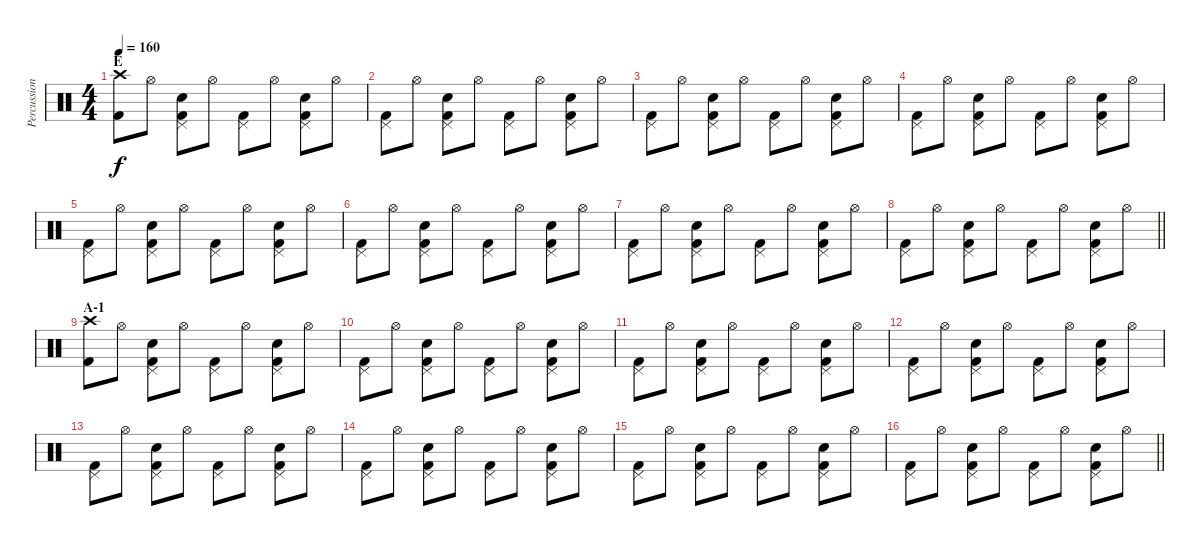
\track ("Percussion" "Percussion") {instrument percussion}
\staff {score}
\articulation defaults
\ts (4 4)
\section ("" "E")
\tempo 160
\clef neutral
\ks c
("Crash high (hit)" "Kick (hit) 2").8{dy f} "Hi-Hat (open)".8 ("Pedal Hi-Hat (hit)" "Electric Snare (hit)" "Kick (hit) 2").8 "Hi-Hat (open)".8 ("Pedal Hi-Hat (hit)" "Kick (hit) 2").8 "Hi-Hat (open)".8 ("Pedal Hi-Hat (hit)" "Electric Snare (hit)" "Kick (hit) 2").8 "Hi-Hat (open)".8 |
("Pedal Hi-Hat (hit)" "Kick (hit) 2").8 "Hi-Hat (open)".8 ("Pedal Hi-Hat (hit)" "Electric Snare (hit)" "Kick (hit) 2").8 "Hi-Hat (open)".8 ("Pedal Hi-Hat (hit)" "Kick (hit) 2").8 "Hi-Hat (open)".8 ("Pedal Hi-Hat (hit)" "Electric Snare (hit)" "Kick (hit) 2").8 "Hi-Hat (open)".8 |
("Pedal Hi-Hat (hit)" "Kick (hit) 2").8 "Hi-Hat (open)".8 ("Pedal Hi-Hat (hit)" "Electric Snare (hit)" "Kick (hit) 2").8 "Hi-Hat (open)".8 ("Pedal Hi-Hat (hit)" "Kick (hit) 2").8 "Hi-Hat (open)".8 ("Pedal Hi-Hat (hit)" "Electric Snare (hit)" "Kick (hit) 2").8 "Hi-Hat (open)".8 |
("Pedal Hi-Hat (hit)" "Kick (hit) 2").8 "Hi-Hat (open)".8 ("Pedal Hi-Hat (hit)" "Electric Snare (hit)" "Kick (hit) 2").8 "Hi-Hat (open)".8 ("Pedal Hi-Hat (hit)" "Kick (hit) 2").8 "Hi-Hat (open)".8 ("Pedal Hi-Hat (hit)" "Electric Snare (hit)" "Kick (hit) 2").8 "Hi-Hat (open)".8 |
("Pedal Hi-Hat (hit)" "Kick (hit) 2").8 "Hi-Hat (open)".8 ("Pedal Hi-Hat (hit)" "Electric Snare (hit)" "Kick (hit) 2").8 "Hi-Hat (open)".8 ("Pedal Hi-Hat (hit)" "Kick (hit) 2").8 "Hi-Hat (open)".8 ("Pedal Hi-Hat (hit)" "Electric Snare (hit)" "Kick (hit) 2").8 "Hi-Hat (open)".8 |
("Pedal Hi-Hat (hit)" "Kick (hit) 2").8 "Hi-Hat (open)".8 ("Pedal Hi-Hat (hit)" "Electric Snare (hit)" "Kick (hit) 2").8 "Hi-Hat (open)".8 ("Pedal Hi-Hat (hit)" "Kick (hit) 2").8 "Hi-Hat (open)".8 ("Pedal Hi-Hat (hit)" "Electric Snare (hit)" "Kick (hit) 2").8 "Hi-Hat (open)".8 |
("Pedal Hi-Hat (hit)" "Kick (hit) 2").8 "Hi-Hat (open)".8 ("Pedal Hi-Hat (hit)" "Electric Snare (hit)" "Kick (hit) 2").8 "Hi-Hat (open)".8 ("Pedal Hi-Hat (hit)" "Kick (hit) 2").8 "Hi-Hat (open)".8 ("Pedal Hi-Hat (hit)" "Electric Snare (hit)" "Kick (hit) 2").8 "Hi-Hat (open)".8 |
\barLineRight lightlight
("Pedal Hi-Hat (hit)" "Kick (hit) 2").8 "Hi-Hat (open)".8 ("Pedal Hi-Hat (hit)" "Electric Snare (hit)" "Kick (hit) 2").8 "Hi-Hat (open)".8 ("Pedal Hi-Hat (hit)" "Kick (hit) 2").8 "Hi-Hat (open)".8 ("Pedal Hi-Hat (hit)" "Electric Snare (hit)" "Kick (hit) 2").8 "Hi-Hat (open)".8 |
\section ("" "A-1")
("Crash high (hit)" "Kick (hit) 2").8 "Hi-Hat (open)".8 ("Pedal Hi-Hat (hit)" "Electric Snare (hit)" "Kick (hit) 2").8 "Hi-Hat (open)".8 ("Pedal Hi-Hat (hit)" "Kick (hit) 2").8 "Hi-Hat (open)".8 ("Pedal Hi-Hat (hit)" "Electric Snare (hit)" "Kick (hit) 2").8 "Hi-Hat (open)".8 |
("Pedal Hi-Hat (hit)" "Kick (hit) 2").8 "Hi-Hat (open)".8 ("Pedal Hi-Hat (hit)" "Electric Snare (hit)" "Kick (hit) 2").8 "Hi-Hat (open)".8 ("Pedal Hi-Hat (hit)" "Kick (hit) 2").8 "Hi-Hat (open)".8 ("Pedal Hi-Hat (hit)" "Electric Snare (hit)" "Kick (hit) 2").8 "Hi-Hat (open)".8 |
("Pedal Hi-Hat (hit)" "Kick (hit) 2").8 "Hi-Hat (open)".8 ("Pedal Hi-Hat (hit)" "Electric Snare (hit)" "Kick (hit) 2").8 "Hi-Hat (open)".8 ("Pedal Hi-Hat (hit)" "Kick (hit) 2").8 "Hi-Hat (open)".8 ("Pedal Hi-Hat (hit)" "Electric Snare (hit)" "Kick (hit) 2").8 "Hi-Hat (open)".8 |
("Pedal Hi-Hat (hit)" "Kick (hit) 2").8 "Hi-Hat (open)".8 ("Pedal Hi-Hat (hit)" "Electric Snare (hit)" "Kick (hit) 2").8 "Hi-Hat (open)".8 ("Pedal Hi-Hat (hit)" "Kick (hit) 2").8 "Hi-Hat (open)".8 ("Pedal Hi-Hat (hit)" "Electric Snare (hit)" "Kick (hit) 2").8 "Hi-Hat (open)".8 |
("Pedal Hi-Hat (hit)" "Kick (hit) 2").8 "Hi-Hat (open)".8 ("Pedal Hi-Hat (hit)" "Electric Snare (hit)" "Kick (hit) 2").8 "Hi-Hat (open)".8 ("Pedal Hi-Hat (hit)" "Kick (hit) 2").8 "Hi-Hat (open)".8 ("Pedal Hi-Hat (hit)" "Electric Snare (hit)" "Kick (hit) 2").8 "Hi-Hat (open)".8 |
("Pedal Hi-Hat (hit)" "Kick (hit) 2").8 "Hi-Hat (open)".8 ("Pedal Hi-Hat (hit)" "Electric Snare (hit)" "Kick (hit) 2").8 "Hi-Hat (open)".8 ("Pedal Hi-Hat (hit)" "Kick (hit) 2").8 "Hi-Hat (open)".8 ("Pedal Hi-Hat (hit)" "Electric Snare (hit)" "Kick (hit) 2").8 "Hi-Hat (open)".8 |
("Pedal Hi-Hat (hit)" "Kick (hit) 2").8 "Hi-Hat (open)".8 ("Pedal Hi-Hat (hit)" "Electric Snare (hit)" "Kick (hit) 2").8 "Hi-Hat (open)".8 ("Pedal Hi-Hat (hit)" "Kick (hit) 2").8 "Hi-Hat (open)".8 ("Pedal Hi-Hat (hit)" "Electric Snare (hit)" "Kick (hit) 2").8 "Hi-Hat (open)".8 |
\barLineRight lightlight
("Pedal Hi-Hat (hit)" "Kick (hit) 2").8 "Hi-Hat (open)".8 ("Pedal Hi-Hat (hit)" "Electric Snare (hit)" "Kick (hit) 2").8 "Hi-Hat (open)".8 ("Pedal Hi-Hat (hit)" "Kick (hit) 2").8 "Hi-Hat (open)".8 ("Pedal Hi-Hat (hit)" "Electric Snare (hit)" "Kick (hit) 2").8 "Hi-Hat (open)".8
